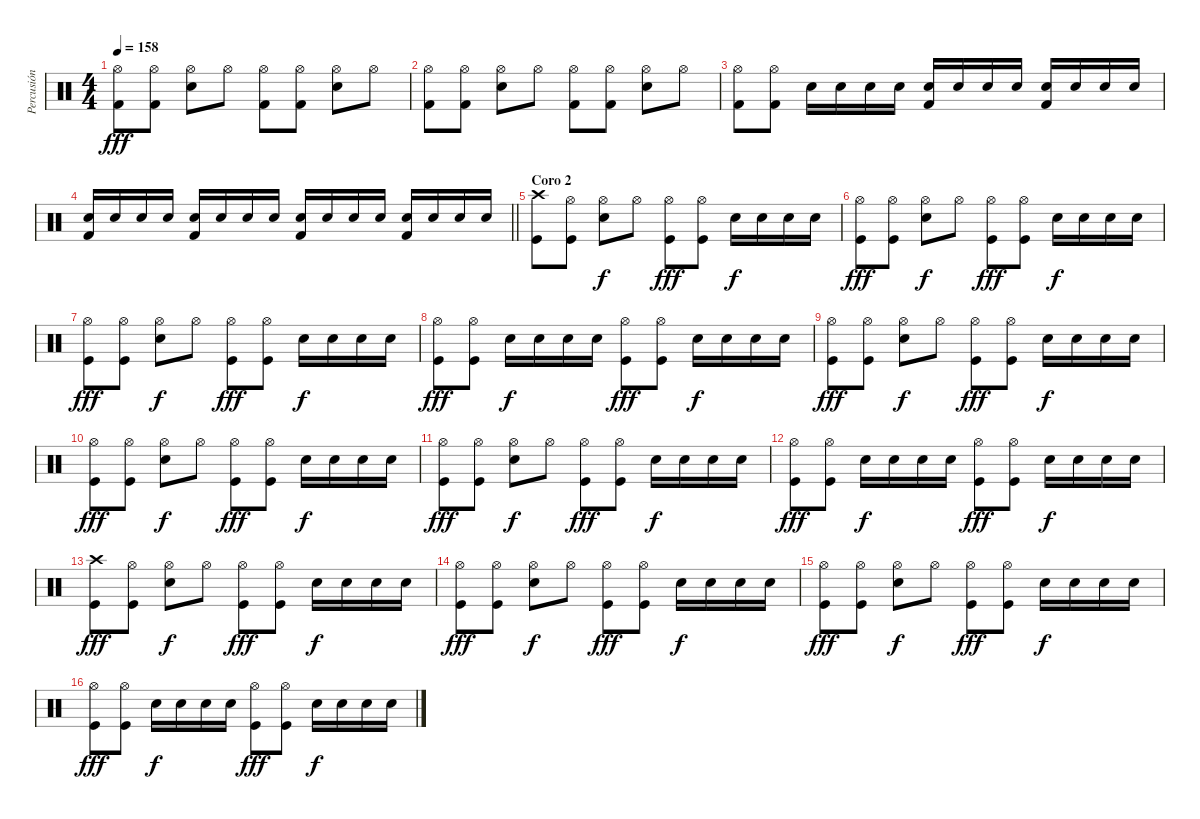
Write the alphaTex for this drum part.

\track ("Percusión" "Percusión") {instrument percussion}
\staff {score}
\articulation defaults
\ts (4 4)
\tempo 158
\clef neutral
\ks c
("Hi-Hat (open)" "Kick (hit) 2").8{dy fff} ("Hi-Hat (open)" "Kick (hit) 2").8 ("Hi-Hat (open)" "Electric Snare (hit)").8 "Hi-Hat (open)".8 ("Hi-Hat (open)" "Kick (hit) 2").8 ("Hi-Hat (open)" "Kick (hit) 2").8 ("Hi-Hat (open)" "Electric Snare (hit)").8 "Hi-Hat (open)".8 |
("Hi-Hat (open)" "Kick (hit) 2").8 ("Hi-Hat (open)" "Kick (hit) 2").8 ("Hi-Hat (open)" "Electric Snare (hit)").8 "Hi-Hat (open)".8 ("Hi-Hat (open)" "Kick (hit) 2").8 ("Hi-Hat (open)" "Kick (hit) 2").8 ("Hi-Hat (open)" "Electric Snare (hit)").8 "Hi-Hat (open)".8 |
("Hi-Hat (open)" "Kick (hit) 2").8 ("Hi-Hat (open)" "Kick (hit) 2").8 "Electric Snare (hit)".16 "Electric Snare (hit)".16 "Electric Snare (hit)".16 "Electric Snare (hit)".16 ("Electric Snare (hit)" "Kick (hit) 2").16 "Electric Snare (hit)".16 "Electric Snare (hit)".16 "Electric Snare (hit)".16 ("Electric Snare (hit)" "Kick (hit) 2").16 "Electric Snare (hit)".16 "Electric Snare (hit)".16 "Electric Snare (hit)".16 |
\barLineRight lightlight
("Electric Snare (hit)" "Kick (hit) 2").16 "Electric Snare (hit)".16 "Electric Snare (hit)".16 "Electric Snare (hit)".16 ("Electric Snare (hit)" "Kick (hit) 2").16 "Electric Snare (hit)".16 "Electric Snare (hit)".16 "Electric Snare (hit)".16 ("Electric Snare (hit)" "Kick (hit) 2").16 "Electric Snare (hit)".16 "Electric Snare (hit)".16 "Electric Snare (hit)".16 ("Electric Snare (hit)" "Kick (hit) 2").16 "Electric Snare (hit)".16 "Electric Snare (hit)".16 "Electric Snare (hit)".16 |
\section ("" "Coro 2")
("Crash high (hit)" "Kick (hit)").8 ("Hi-Hat (open)" "Kick (hit)").8 ("Hi-Hat (open)" "Electric Snare (hit)").8{dy f} "Hi-Hat (open)".8 ("Hi-Hat (open)" "Kick (hit)").8{dy fff} ("Hi-Hat (open)" "Kick (hit)").8 "Electric Snare (hit)".16{dy f} "Electric Snare (hit)".16 "Electric Snare (hit)".16 "Electric Snare (hit)".16 |
("Hi-Hat (open)" "Kick (hit)").8{dy fff} ("Hi-Hat (open)" "Kick (hit)").8 ("Hi-Hat (open)" "Electric Snare (hit)").8{dy f} "Hi-Hat (open)".8 ("Hi-Hat (open)" "Kick (hit)").8{dy fff} ("Hi-Hat (open)" "Kick (hit)").8 "Electric Snare (hit)".16{dy f} "Electric Snare (hit)".16 "Electric Snare (hit)".16 "Electric Snare (hit)".16 |
("Hi-Hat (open)" "Kick (hit)").8{dy fff} ("Hi-Hat (open)" "Kick (hit)").8 ("Hi-Hat (open)" "Electric Snare (hit)").8{dy f} "Hi-Hat (open)".8 ("Hi-Hat (open)" "Kick (hit)").8{dy fff} ("Hi-Hat (open)" "Kick (hit)").8 "Electric Snare (hit)".16{dy f} "Electric Snare (hit)".16 "Electric Snare (hit)".16 "Electric Snare (hit)".16 |
("Hi-Hat (open)" "Kick (hit)").8{dy fff} ("Hi-Hat (open)" "Kick (hit)").8 "Electric Snare (hit)".16{dy f} "Electric Snare (hit)".16 "Electric Snare (hit)".16 "Electric Snare (hit)".16 ("Hi-Hat (open)" "Kick (hit)").8{dy fff} ("Hi-Hat (open)" "Kick (hit)").8 "Electric Snare (hit)".16{dy f} "Electric Snare (hit)".16 "Electric Snare (hit)".16 "Electric Snare (hit)".16 |
("Hi-Hat (open)" "Kick (hit)").8{dy fff} ("Hi-Hat (open)" "Kick (hit)").8 ("Hi-Hat (open)" "Electric Snare (hit)").8{dy f} "Hi-Hat (open)".8 ("Hi-Hat (open)" "Kick (hit)").8{dy fff} ("Hi-Hat (open)" "Kick (hit)").8 "Electric Snare (hit)".16{dy f} "Electric Snare (hit)".16 "Electric Snare (hit)".16 "Electric Snare (hit)".16 |
("Hi-Hat (open)" "Kick (hit)").8{dy fff} ("Hi-Hat (open)" "Kick (hit)").8 ("Hi-Hat (open)" "Electric Snare (hit)").8{dy f} "Hi-Hat (open)".8 ("Hi-Hat (open)" "Kick (hit)").8{dy fff} ("Hi-Hat (open)" "Kick (hit)").8 "Electric Snare (hit)".16{dy f} "Electric Snare (hit)".16 "Electric Snare (hit)".16 "Electric Snare (hit)".16 |
("Hi-Hat (open)" "Kick (hit)").8{dy fff} ("Hi-Hat (open)" "Kick (hit)").8 ("Hi-Hat (open)" "Electric Snare (hit)").8{dy f} "Hi-Hat (open)".8 ("Hi-Hat (open)" "Kick (hit)").8{dy fff} ("Hi-Hat (open)" "Kick (hit)").8 "Electric Snare (hit)".16{dy f} "Electric Snare (hit)".16 "Electric Snare (hit)".16 "Electric Snare (hit)".16 |
("Hi-Hat (open)" "Kick (hit)").8{dy fff} ("Hi-Hat (open)" "Kick (hit)").8 "Electric Snare (hit)".16{dy f} "Electric Snare (hit)".16 "Electric Snare (hit)".16 "Electric Snare (hit)".16 ("Hi-Hat (open)" "Kick (hit)").8{dy fff} ("Hi-Hat (open)" "Kick (hit)").8 "Electric Snare (hit)".16{dy f} "Electric Snare (hit)".16 "Electric Snare (hit)".16 "Electric Snare (hit)".16 |
("Crash high (hit)" "Kick (hit)").8{dy fff} ("Hi-Hat (open)" "Kick (hit)").8 ("Hi-Hat (open)" "Electric Snare (hit)").8{dy f} "Hi-Hat (open)".8 ("Hi-Hat (open)" "Kick (hit)").8{dy fff} ("Hi-Hat (open)" "Kick (hit)").8 "Electric Snare (hit)".16{dy f} "Electric Snare (hit)".16 "Electric Snare (hit)".16 "Electric Snare (hit)".16 |
("Hi-Hat (open)" "Kick (hit)").8{dy fff} ("Hi-Hat (open)" "Kick (hit)").8 ("Hi-Hat (open)" "Electric Snare (hit)").8{dy f} "Hi-Hat (open)".8 ("Hi-Hat (open)" "Kick (hit)").8{dy fff} ("Hi-Hat (open)" "Kick (hit)").8 "Electric Snare (hit)".16{dy f} "Electric Snare (hit)".16 "Electric Snare (hit)".16 "Electric Snare (hit)".16 |
("Hi-Hat (open)" "Kick (hit)").8{dy fff} ("Hi-Hat (open)" "Kick (hit)").8 ("Hi-Hat (open)" "Electric Snare (hit)").8{dy f} "Hi-Hat (open)".8 ("Hi-Hat (open)" "Kick (hit)").8{dy fff} ("Hi-Hat (open)" "Kick (hit)").8 "Electric Snare (hit)".16{dy f} "Electric Snare (hit)".16 "Electric Snare (hit)".16 "Electric Snare (hit)".16 |
("Hi-Hat (open)" "Kick (hit)").8{dy fff} ("Hi-Hat (open)" "Kick (hit)").8 "Electric Snare (hit)".16{dy f} "Electric Snare (hit)".16 "Electric Snare (hit)".16 "Electric Snare (hit)".16 ("Hi-Hat (open)" "Kick (hit)").8{dy fff} ("Hi-Hat (open)" "Kick (hit)").8 "Electric Snare (hit)".16{dy f} "Electric Snare (hit)".16 "Electric Snare (hit)".16 "Electric Snare (hit)".16
